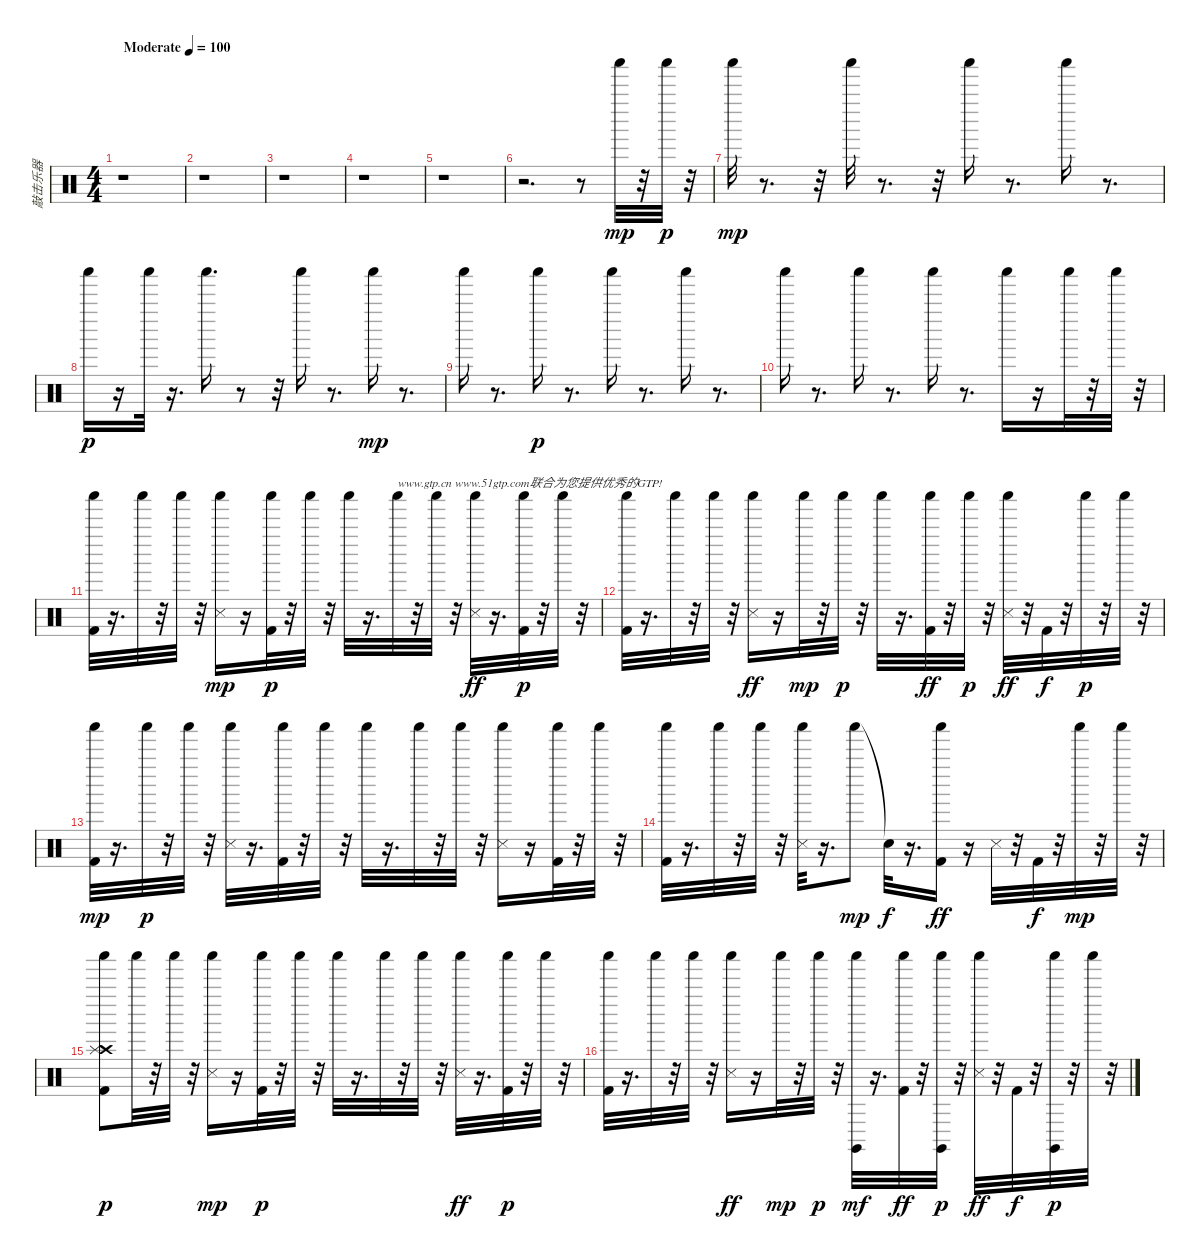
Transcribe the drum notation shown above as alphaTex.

\track ("敲击乐器" "敲击乐器") {instrument percussion}
\staff {score}
\articulation defaults
\ts (4 4)
\tempo (100 "Moderate")
\clef neutral
\ks c
r.1{dy mp} |
r.1 |
r.1 |
r.1 |
r.1 |
r.2{d} r.8 "Shaker (hit)".32 r.32 "Shaker (hit)".32{dy p} r.32 |
"Shaker (hit)".32{dy mp} r.8{d} r.32 "Shaker (hit)".32 r.8{d} r.32 "Shaker (hit)".16 r.8{d} "Shaker (hit)".16 r.8{d} |
"Shaker (hit)".16{dy p} r.16 "Shaker (hit)".32 r.16{d} "Shaker (hit)".16{d} r.8 r.32 "Shaker (hit)".16 r.8{d} "Shaker (hit)".16{dy mp} r.8{d} |
"Shaker (hit)".16 r.8{d} "Shaker (hit)".16{dy p} r.8{d} "Shaker (hit)".16 r.8{d} "Shaker (hit)".16 r.8{d} |
"Shaker (hit)".16 r.8{d} "Shaker (hit)".16 r.8{d} "Shaker (hit)".16 r.8{d} "Shaker (hit)".16 r.16 "Shaker (hit)".32 r.32 "Shaker (hit)".32 r.32 |
("Shaker (hit)" "Kick (hit) 2").32 r.16{d} "Shaker (hit)".32 r.32 "Shaker (hit)".32 r.32 ("Shaker (hit)" "Snare (side stick) 3").16{dy mp} r.16 ("Kick (hit) 2" "Shaker (hit)").32{dy p} r.32 "Shaker (hit)".32 r.32 "Shaker (hit)".32 r.16{d} "Shaker (hit)".32{txt "www.gtp.cn www.51gtp.com联合为您提供优秀的GTP!"} r.32 "Shaker (hit)".32 r.32 ("Shaker (hit)" "Snare (side stick) 3").32{dy ff} r.16{d} ("Kick (hit) 2" "Shaker (hit)").32{dy p} r.32 "Shaker (hit)".32 r.32 |
("Shaker (hit)" "Kick (hit) 2").32 r.16{d} "Shaker (hit)".32 r.32 "Shaker (hit)".32 r.32 ("Shaker (hit)" "Snare (side stick) 3").16{dy ff} r.16 "Shaker (hit)".32{dy mp} r.32 "Shaker (hit)".32{dy p} r.32 "Shaker (hit)".32 r.16{d} ("Shaker (hit)" "Kick (hit) 2").32{dy ff} r.32 "Shaker (hit)".32{dy p} r.32 ("Shaker (hit)" "Snare (side stick) 3").32{dy ff} r.32 "Kick (hit) 2".32{dy f} r.32 "Shaker (hit)".32{dy p} r.32 "Shaker (hit)".32 r.32 |
("Kick (hit) 2" "Shaker (hit)").32{dy mp} r.16{d} "Shaker (hit)".32{dy p} r.32 "Shaker (hit)".32 r.32 ("Snare (side stick) 3" "Shaker (hit)").32 r.16{d} ("Kick (hit) 2" "Shaker (hit)").32 r.32 "Shaker (hit)".32 r.32 "Shaker (hit)".32 r.16{d} "Shaker (hit)".32 r.32 "Shaker (hit)".32 r.32 ("Snare (side stick) 3" "Shaker (hit)").16 r.16 ("Kick (hit) 2" "Shaker (hit)").32 r.32 "Shaker (hit)".32 r.32 |
("Shaker (hit)" "Kick (hit) 2").32 r.16{d} "Shaker (hit)".32 r.32 "Shaker (hit)".32 r.32 ("Snare (side stick) 3" "Shaker (hit)").32 r.16{d} "Shaker (hit)".8{dy mp} "Snare (hit)"{t}.32{dy f} r.16{d} ("Shaker (hit)" "Kick (hit) 2").16{dy ff} r.16 "Snare (side stick) 3".32 r.32 "Kick (hit) 2".32{dy f} r.32 "Shaker (hit)".32{dy mp} r.32 "Shaker (hit)".32 r.32 |
("Crash high (hit)" "Splash (hit)" "Shaker (hit)" "Kick (hit) 2").8{dy p} "Shaker (hit)".32 r.32 "Shaker (hit)".32 r.32 ("Shaker (hit)" "Snare (side stick) 3").16{dy mp} r.16 ("Kick (hit) 2" "Shaker (hit)").32{dy p} r.32 "Shaker (hit)".32 r.32 "Shaker (hit)".32 r.16{d} "Shaker (hit)".32 r.32 "Shaker (hit)".32 r.32 ("Shaker (hit)" "Snare (side stick) 3").32{dy ff} r.16{d} ("Kick (hit) 2" "Shaker (hit)").32{dy p} r.32 "Shaker (hit)".32 r.32 |
("Shaker (hit)" "Kick (hit) 2").32 r.16{d} "Shaker (hit)".32 r.32 "Shaker (hit)".32 r.32 ("Shaker (hit)" "Snare (side stick) 3").16{dy ff} r.16 "Shaker (hit)".32{dy mp} r.32 "Shaker (hit)".32{dy p} r.32 ("Shaker (hit)" "Claves (hit)").32{dy mf} r.16{d} ("Shaker (hit)" "Kick (hit) 2").32{dy ff} r.32 ("Claves (hit)" "Shaker (hit)").32{dy p} r.32 ("Shaker (hit)" "Snare (side stick) 3").32{dy ff} r.32 "Kick (hit) 2".32{dy f} r.32 ("Claves (hit)" "Shaker (hit)").32{dy p} r.32 "Shaker (hit)".32 r.32
